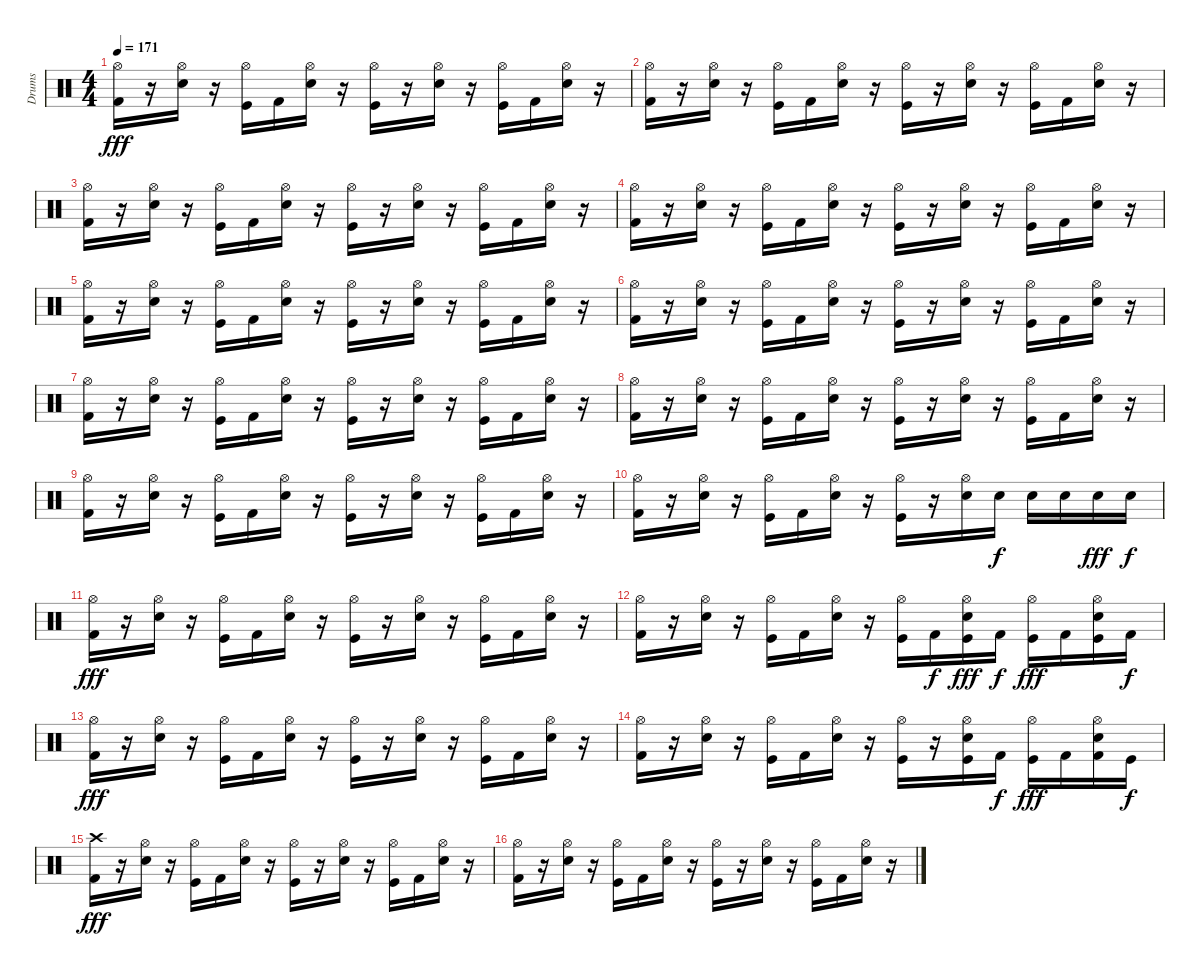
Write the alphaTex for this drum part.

\track ("Drums" "Drums") {instrument percussion}
\staff {score}
\articulation defaults
\ts (4 4)
\tempo 171
\clef neutral
\ks c
("Hi-Hat (open)" "Kick (hit) 2").16{dy fff} r.16 ("Hi-Hat (open)" "Electric Snare (hit)").16 r.16 ("Hi-Hat (open)" "Kick (hit)").16 "Kick (hit) 2".16 ("Hi-Hat (open)" "Electric Snare (hit)").16 r.16 ("Hi-Hat (open)" "Kick (hit)").16 r.16 ("Hi-Hat (open)" "Electric Snare (hit)").16 r.16 ("Hi-Hat (open)" "Kick (hit)").16 "Kick (hit) 2".16 ("Hi-Hat (open)" "Electric Snare (hit)").16 r.16 |
("Hi-Hat (open)" "Kick (hit) 2").16 r.16 ("Hi-Hat (open)" "Electric Snare (hit)").16 r.16 ("Hi-Hat (open)" "Kick (hit)").16 "Kick (hit) 2".16 ("Hi-Hat (open)" "Electric Snare (hit)").16 r.16 ("Hi-Hat (open)" "Kick (hit)").16 r.16 ("Hi-Hat (open)" "Electric Snare (hit)").16 r.16 ("Hi-Hat (open)" "Kick (hit)").16 "Kick (hit) 2".16 ("Hi-Hat (open)" "Electric Snare (hit)").16 r.16 |
("Hi-Hat (open)" "Kick (hit) 2").16 r.16 ("Hi-Hat (open)" "Electric Snare (hit)").16 r.16 ("Hi-Hat (open)" "Kick (hit)").16 "Kick (hit) 2".16 ("Hi-Hat (open)" "Electric Snare (hit)").16 r.16 ("Hi-Hat (open)" "Kick (hit)").16 r.16 ("Hi-Hat (open)" "Electric Snare (hit)").16 r.16 ("Hi-Hat (open)" "Kick (hit)").16 "Kick (hit) 2".16 ("Hi-Hat (open)" "Electric Snare (hit)").16 r.16 |
("Hi-Hat (open)" "Kick (hit) 2").16 r.16 ("Hi-Hat (open)" "Electric Snare (hit)").16 r.16 ("Hi-Hat (open)" "Kick (hit)").16 "Kick (hit) 2".16 ("Hi-Hat (open)" "Electric Snare (hit)").16 r.16 ("Hi-Hat (open)" "Kick (hit)").16 r.16 ("Hi-Hat (open)" "Electric Snare (hit)").16 r.16 ("Hi-Hat (open)" "Kick (hit)").16 "Kick (hit) 2".16 ("Hi-Hat (open)" "Electric Snare (hit)").16 r.16 |
("Hi-Hat (open)" "Kick (hit) 2").16 r.16 ("Hi-Hat (open)" "Electric Snare (hit)").16 r.16 ("Hi-Hat (open)" "Kick (hit)").16 "Kick (hit) 2".16 ("Hi-Hat (open)" "Electric Snare (hit)").16 r.16 ("Hi-Hat (open)" "Kick (hit)").16 r.16 ("Hi-Hat (open)" "Electric Snare (hit)").16 r.16 ("Hi-Hat (open)" "Kick (hit)").16 "Kick (hit) 2".16 ("Hi-Hat (open)" "Electric Snare (hit)").16 r.16 |
("Hi-Hat (open)" "Kick (hit) 2").16 r.16 ("Hi-Hat (open)" "Electric Snare (hit)").16 r.16 ("Hi-Hat (open)" "Kick (hit)").16 "Kick (hit) 2".16 ("Hi-Hat (open)" "Electric Snare (hit)").16 r.16 ("Hi-Hat (open)" "Kick (hit)").16 r.16 ("Hi-Hat (open)" "Electric Snare (hit)").16 r.16 ("Hi-Hat (open)" "Kick (hit)").16 "Kick (hit) 2".16 ("Hi-Hat (open)" "Electric Snare (hit)").16 r.16 |
("Hi-Hat (open)" "Kick (hit) 2").16 r.16 ("Hi-Hat (open)" "Electric Snare (hit)").16 r.16 ("Hi-Hat (open)" "Kick (hit)").16 "Kick (hit) 2".16 ("Hi-Hat (open)" "Electric Snare (hit)").16 r.16 ("Hi-Hat (open)" "Kick (hit)").16 r.16 ("Hi-Hat (open)" "Electric Snare (hit)").16 r.16 ("Hi-Hat (open)" "Kick (hit)").16 "Kick (hit) 2".16 ("Hi-Hat (open)" "Electric Snare (hit)").16 r.16 |
("Hi-Hat (open)" "Kick (hit) 2").16 r.16 ("Hi-Hat (open)" "Electric Snare (hit)").16 r.16 ("Hi-Hat (open)" "Kick (hit)").16 "Kick (hit) 2".16 ("Hi-Hat (open)" "Electric Snare (hit)").16 r.16 ("Hi-Hat (open)" "Kick (hit)").16 r.16 ("Hi-Hat (open)" "Electric Snare (hit)").16 r.16 ("Hi-Hat (open)" "Kick (hit)").16 "Kick (hit) 2".16 ("Hi-Hat (open)" "Electric Snare (hit)").16 r.16 |
("Hi-Hat (open)" "Kick (hit) 2").16 r.16 ("Hi-Hat (open)" "Electric Snare (hit)").16 r.16 ("Hi-Hat (open)" "Kick (hit)").16 "Kick (hit) 2".16 ("Hi-Hat (open)" "Electric Snare (hit)").16 r.16 ("Hi-Hat (open)" "Kick (hit)").16 r.16 ("Hi-Hat (open)" "Electric Snare (hit)").16 r.16 ("Hi-Hat (open)" "Kick (hit)").16 "Kick (hit) 2".16 ("Hi-Hat (open)" "Electric Snare (hit)").16 r.16 |
("Hi-Hat (open)" "Kick (hit) 2").16 r.16 ("Hi-Hat (open)" "Electric Snare (hit)").16 r.16 ("Hi-Hat (open)" "Kick (hit)").16 "Kick (hit) 2".16 ("Hi-Hat (open)" "Electric Snare (hit)").16 r.16 ("Hi-Hat (open)" "Kick (hit)").16 r.16 ("Hi-Hat (open)" "Electric Snare (hit)").16 "Electric Snare (hit)".16{dy f} "Electric Snare (hit)".16 "Electric Snare (hit)".16 "Electric Snare (hit)".16{dy fff} "Electric Snare (hit)".16{dy f} |
("Hi-Hat (open)" "Kick (hit) 2").16{dy fff} r.16 ("Hi-Hat (open)" "Electric Snare (hit)").16 r.16 ("Hi-Hat (open)" "Kick (hit)").16 "Kick (hit) 2".16 ("Hi-Hat (open)" "Electric Snare (hit)").16 r.16 ("Hi-Hat (open)" "Kick (hit)").16 r.16 ("Hi-Hat (open)" "Electric Snare (hit)").16 r.16 ("Hi-Hat (open)" "Kick (hit)").16 "Kick (hit) 2".16 ("Hi-Hat (open)" "Electric Snare (hit)").16 r.16 |
("Hi-Hat (open)" "Kick (hit) 2").16 r.16 ("Hi-Hat (open)" "Electric Snare (hit)").16 r.16 ("Hi-Hat (open)" "Kick (hit)").16 "Kick (hit) 2".16 ("Hi-Hat (open)" "Electric Snare (hit)").16 r.16 ("Hi-Hat (open)" "Kick (hit)").16 "Kick (hit) 2".16{dy f} ("Hi-Hat (open)" "Electric Snare (hit)" "Kick (hit)").16{dy fff} "Kick (hit) 2".16{dy f} ("Hi-Hat (open)" "Kick (hit)").16{dy fff} "Kick (hit) 2".16 ("Hi-Hat (open)" "Electric Snare (hit)" "Kick (hit)").16 "Kick (hit) 2".16{dy f} |
("Hi-Hat (open)" "Kick (hit) 2").16{dy fff} r.16 ("Hi-Hat (open)" "Electric Snare (hit)").16 r.16 ("Hi-Hat (open)" "Kick (hit)").16 "Kick (hit) 2".16 ("Hi-Hat (open)" "Electric Snare (hit)").16 r.16 ("Hi-Hat (open)" "Kick (hit)").16 r.16 ("Hi-Hat (open)" "Electric Snare (hit)").16 r.16 ("Hi-Hat (open)" "Kick (hit)").16 "Kick (hit) 2".16 ("Hi-Hat (open)" "Electric Snare (hit)").16 r.16 |
("Hi-Hat (open)" "Kick (hit) 2").16 r.16 ("Hi-Hat (open)" "Electric Snare (hit)").16 r.16 ("Hi-Hat (open)" "Kick (hit)").16 "Kick (hit) 2".16 ("Hi-Hat (open)" "Electric Snare (hit)").16 r.16 ("Hi-Hat (open)" "Kick (hit)").16 r.16 ("Hi-Hat (open)" "Electric Snare (hit)" "Kick (hit)").16 "Kick (hit) 2".16{dy f} ("Hi-Hat (open)" "Kick (hit)").16{dy fff} "Kick (hit) 2".16 ("Hi-Hat (open)" "Electric Snare (hit)" "Kick (hit) 2").16 "Kick (hit)".16{dy f} |
("Crash high (hit)" "Kick (hit) 2").16{dy fff} r.16 ("Hi-Hat (open)" "Electric Snare (hit)").16 r.16 ("Hi-Hat (open)" "Kick (hit)").16 "Kick (hit) 2".16 ("Hi-Hat (open)" "Electric Snare (hit)").16 r.16 ("Hi-Hat (open)" "Kick (hit)").16 r.16 ("Hi-Hat (open)" "Electric Snare (hit)").16 r.16 ("Hi-Hat (open)" "Kick (hit)").16 "Kick (hit) 2".16 ("Hi-Hat (open)" "Electric Snare (hit)").16 r.16 |
("Hi-Hat (open)" "Kick (hit) 2").16 r.16 ("Hi-Hat (open)" "Electric Snare (hit)").16 r.16 ("Hi-Hat (open)" "Kick (hit)").16 "Kick (hit) 2".16 ("Hi-Hat (open)" "Electric Snare (hit)").16 r.16 ("Hi-Hat (open)" "Kick (hit)").16 r.16 ("Hi-Hat (open)" "Electric Snare (hit)").16 r.16 ("Hi-Hat (open)" "Kick (hit)").16 "Kick (hit) 2".16 ("Hi-Hat (open)" "Electric Snare (hit)").16 r.16
